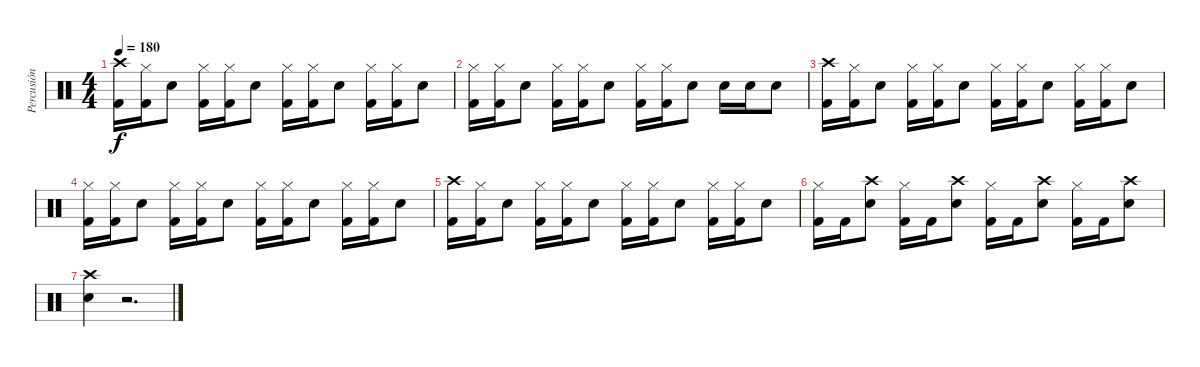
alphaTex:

\track ("Percusión" "Percusión") {instrument percussion}
\staff {score}
\articulation defaults
\ts (4 4)
\tempo 180
\clef neutral
\ks c
("Kick (hit) 2" "Crash high (hit)").16{dy f} ("Kick (hit) 2" "Hi-Hat (closed)").16 "Snare (hit) 2".8 ("Kick (hit) 2" "Hi-Hat (closed)").16 ("Kick (hit) 2" "Hi-Hat (closed)").16 "Snare (hit) 2".8 ("Kick (hit) 2" "Hi-Hat (closed)").16 ("Kick (hit) 2" "Hi-Hat (closed)").16 "Snare (hit) 2".8 ("Kick (hit) 2" "Hi-Hat (closed)").16 ("Kick (hit) 2" "Hi-Hat (closed)").16 "Snare (hit) 2".8 |
("Kick (hit) 2" "Hi-Hat (closed)").16 ("Kick (hit) 2" "Hi-Hat (closed)").16 "Snare (hit) 2".8 ("Kick (hit) 2" "Hi-Hat (closed)").16 ("Kick (hit) 2" "Hi-Hat (closed)").16 "Snare (hit) 2".8 ("Kick (hit) 2" "Hi-Hat (closed)").16 ("Kick (hit) 2" "Hi-Hat (closed)").16 "Snare (hit) 2".8 "Snare (hit) 2".16 "Snare (hit) 2".16 "Snare (hit) 2".8 |
("Kick (hit) 2" "Crash high (hit)").16 ("Kick (hit) 2" "Hi-Hat (closed)").16 "Snare (hit) 2".8 ("Kick (hit) 2" "Hi-Hat (closed)").16 ("Kick (hit) 2" "Hi-Hat (closed)").16 "Snare (hit) 2".8 ("Kick (hit) 2" "Hi-Hat (closed)").16 ("Kick (hit) 2" "Hi-Hat (closed)").16 "Snare (hit) 2".8 ("Kick (hit) 2" "Hi-Hat (closed)").16 ("Kick (hit) 2" "Hi-Hat (closed)").16 "Snare (hit) 2".8 |
("Kick (hit) 2" "Hi-Hat (closed)").16 ("Kick (hit) 2" "Hi-Hat (closed)").16 "Snare (hit) 2".8 ("Kick (hit) 2" "Hi-Hat (closed)").16 ("Kick (hit) 2" "Hi-Hat (closed)").16 "Snare (hit) 2".8 ("Kick (hit) 2" "Hi-Hat (closed)").16 ("Kick (hit) 2" "Hi-Hat (closed)").16 "Snare (hit) 2".8 ("Kick (hit) 2" "Hi-Hat (closed)").16 ("Kick (hit) 2" "Hi-Hat (closed)").16 "Snare (hit) 2".8 |
("Kick (hit) 2" "Crash high (hit)").16 ("Kick (hit) 2" "Hi-Hat (closed)").16 "Snare (hit) 2".8 ("Kick (hit) 2" "Hi-Hat (closed)").16 ("Kick (hit) 2" "Hi-Hat (closed)").16 "Snare (hit) 2".8 ("Kick (hit) 2" "Hi-Hat (closed)").16 ("Kick (hit) 2" "Hi-Hat (closed)").16 "Snare (hit) 2".8 ("Kick (hit) 2" "Hi-Hat (closed)").16 ("Kick (hit) 2" "Hi-Hat (closed)").16 "Snare (hit) 2".8 |
("Kick (hit) 2" "Hi-Hat (closed)").16 "Kick (hit) 2".16 ("Snare (hit) 2" "Crash high (hit)").8 ("Kick (hit) 2" "Hi-Hat (closed)").16 "Kick (hit) 2".16 ("Snare (hit) 2" "Crash high (hit)").8 ("Kick (hit) 2" "Hi-Hat (closed)").16 "Kick (hit) 2".16 ("Snare (hit) 2" "Crash high (hit)").8 ("Kick (hit) 2" "Hi-Hat (closed)").16 "Kick (hit) 2".16 ("Snare (hit) 2" "Crash high (hit)").8 |
("Snare (hit) 2" "Crash high (hit)").4 r.2{d}
